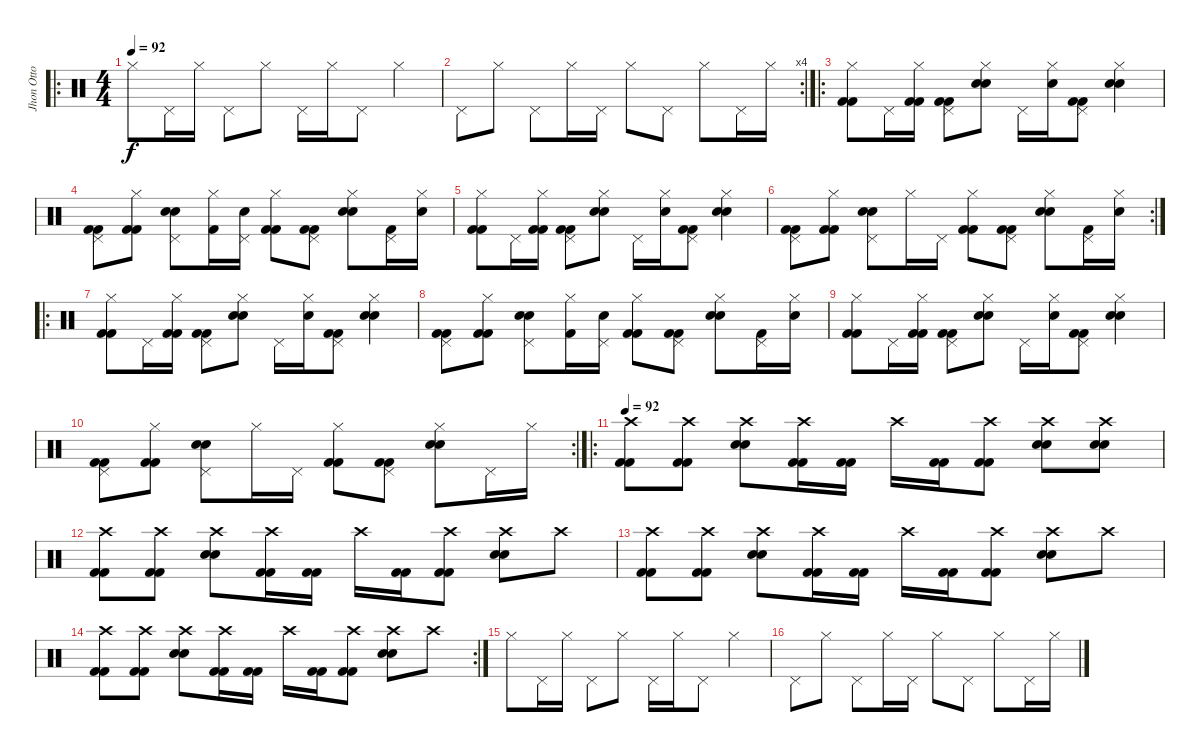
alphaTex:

\track ("Jhon Otto" "Jhon Otto") {instrument percussion}
\staff {score}
\articulation defaults
\ro
\ts (4 4)
\tempo 92
\clef neutral
\ks c "Hi-Hat (closed)".8{dy f} "Pedal Hi-Hat (hit)".16 "Hi-Hat (closed)".16 "Pedal Hi-Hat (hit)".8 "Hi-Hat (closed)".8 "Pedal Hi-Hat (hit)".16 "Hi-Hat (closed)".16 "Pedal Hi-Hat (hit)".8 "Hi-Hat (closed)".4
|
\rc 4 "Pedal Hi-Hat (hit)".8 "Hi-Hat (closed)".8 "Pedal Hi-Hat (hit)".8 "Hi-Hat (closed)".16 "Pedal Hi-Hat (hit)".16 "Hi-Hat (closed)".8 "Pedal Hi-Hat (hit)".8 "Hi-Hat (closed)".8 "Pedal Hi-Hat (hit)".16 "Hi-Hat (closed)".16
|
\ro
("Hi-Hat (closed)" "Kick (hit) 2" "Kick (hit) 2").8 "Pedal Hi-Hat (hit)".16 ("Hi-Hat (closed)" "Kick (hit) 2" "Kick (hit) 2").16 ("Pedal Hi-Hat (hit)" "Kick (hit) 2" "Kick (hit) 2").8 ("Hi-Hat (closed)" "Electric Snare (hit)" "Electric Snare (hit)").8 "Pedal Hi-Hat (hit)".16 ("Hi-Hat (closed)" "Electric Snare (hit)").16 ("Pedal Hi-Hat (hit)" "Kick (hit) 2" "Kick (hit) 2").8 ("Hi-Hat (closed)" "Electric Snare (hit)" "Electric Snare (hit)").4 |
("Pedal Hi-Hat (hit)" "Kick (hit) 2" "Kick (hit) 2").8 ("Hi-Hat (closed)" "Kick (hit) 2" "Kick (hit) 2").8 ("Pedal Hi-Hat (hit)" "Electric Snare (hit)" "Electric Snare (hit)").8 ("Hi-Hat (closed)" "Kick (hit) 2").16 ("Pedal Hi-Hat (hit)" "Electric Snare (hit)").16 ("Hi-Hat (closed)" "Kick (hit) 2" "Kick (hit) 2").8 ("Pedal Hi-Hat (hit)" "Kick (hit) 2" "Kick (hit) 2").8 ("Hi-Hat (closed)" "Electric Snare (hit)" "Electric Snare (hit)").8 ("Pedal Hi-Hat (hit)" "Kick (hit) 2").16 ("Hi-Hat (closed)" "Electric Snare (hit)").16 |
("Hi-Hat (closed)" "Kick (hit) 2" "Kick (hit) 2").8 "Pedal Hi-Hat (hit)".16 ("Hi-Hat (closed)" "Kick (hit) 2" "Kick (hit) 2").16 ("Pedal Hi-Hat (hit)" "Kick (hit) 2" "Kick (hit) 2").8 ("Hi-Hat (closed)" "Electric Snare (hit)" "Electric Snare (hit)").8 "Pedal Hi-Hat (hit)".16 ("Hi-Hat (closed)" "Electric Snare (hit)").16 ("Pedal Hi-Hat (hit)" "Kick (hit) 2" "Kick (hit) 2").8 ("Hi-Hat (closed)" "Electric Snare (hit)" "Electric Snare (hit)").4 |
\rc 2
("Pedal Hi-Hat (hit)" "Kick (hit) 2" "Kick (hit) 2").8 ("Hi-Hat (closed)" "Kick (hit) 2" "Kick (hit) 2").8 ("Pedal Hi-Hat (hit)" "Electric Snare (hit)" "Electric Snare (hit)").8 "Hi-Hat (closed)".16 "Pedal Hi-Hat (hit)".16 ("Hi-Hat (closed)" "Kick (hit) 2" "Kick (hit) 2").8 ("Pedal Hi-Hat (hit)" "Kick (hit) 2" "Kick (hit) 2").8 ("Hi-Hat (closed)" "Electric Snare (hit)" "Electric Snare (hit)").8 ("Pedal Hi-Hat (hit)" "Kick (hit) 2").16 ("Hi-Hat (closed)" "Electric Snare (hit)").16 |
\ro
("Hi-Hat (closed)" "Kick (hit) 2" "Kick (hit) 2").8 "Pedal Hi-Hat (hit)".16 ("Hi-Hat (closed)" "Kick (hit) 2" "Kick (hit) 2").16 ("Pedal Hi-Hat (hit)" "Kick (hit) 2" "Kick (hit) 2").8 ("Hi-Hat (closed)" "Electric Snare (hit)" "Electric Snare (hit)").8 "Pedal Hi-Hat (hit)".16 ("Hi-Hat (closed)" "Electric Snare (hit)").16 ("Pedal Hi-Hat (hit)" "Kick (hit) 2" "Kick (hit) 2").8 ("Hi-Hat (closed)" "Electric Snare (hit)" "Electric Snare (hit)").4 |
("Pedal Hi-Hat (hit)" "Kick (hit) 2" "Kick (hit) 2").8 ("Hi-Hat (closed)" "Kick (hit) 2" "Kick (hit) 2").8 ("Pedal Hi-Hat (hit)" "Electric Snare (hit)" "Electric Snare (hit)").8 ("Hi-Hat (closed)" "Kick (hit) 2").16 ("Pedal Hi-Hat (hit)" "Electric Snare (hit)").16 ("Hi-Hat (closed)" "Kick (hit) 2" "Kick (hit) 2").8 ("Pedal Hi-Hat (hit)" "Kick (hit) 2" "Kick (hit) 2").8 ("Hi-Hat (closed)" "Electric Snare (hit)" "Electric Snare (hit)").8 ("Pedal Hi-Hat (hit)" "Kick (hit) 2").16 ("Hi-Hat (closed)" "Electric Snare (hit)").16 |
("Hi-Hat (closed)" "Kick (hit) 2" "Kick (hit) 2").8 "Pedal Hi-Hat (hit)".16 ("Hi-Hat (closed)" "Kick (hit) 2" "Kick (hit) 2").16 ("Pedal Hi-Hat (hit)" "Kick (hit) 2" "Kick (hit) 2").8 ("Hi-Hat (closed)" "Electric Snare (hit)" "Electric Snare (hit)").8 "Pedal Hi-Hat (hit)".16 ("Hi-Hat (closed)" "Electric Snare (hit)").16 ("Pedal Hi-Hat (hit)" "Kick (hit) 2" "Kick (hit) 2").8 ("Hi-Hat (closed)" "Electric Snare (hit)" "Electric Snare (hit)").4 |
\rc 2
("Pedal Hi-Hat (hit)" "Kick (hit) 2" "Kick (hit) 2").8 ("Hi-Hat (closed)" "Kick (hit) 2" "Kick (hit) 2").8 ("Pedal Hi-Hat (hit)" "Electric Snare (hit)" "Electric Snare (hit)").8 "Hi-Hat (closed)".16 "Pedal Hi-Hat (hit)".16 ("Hi-Hat (closed)" "Kick (hit) 2" "Kick (hit) 2").8 ("Pedal Hi-Hat (hit)" "Kick (hit) 2" "Kick (hit) 2").8 ("Hi-Hat (closed)" "Electric Snare (hit)" "Electric Snare (hit)").8 "Pedal Hi-Hat (hit)".16 "Hi-Hat (closed)".16 |
\ro
\tempo 92
("Crash high (hit)" "Kick (hit) 2" "Kick (hit) 2").8 ("Crash high (hit)" "Kick (hit) 2" "Kick (hit) 2").8 ("Crash high (hit)" "Electric Snare (hit)" "Electric Snare (hit)").8 ("Crash high (hit)" "Kick (hit) 2" "Kick (hit) 2").16 ("Kick (hit) 2" "Kick (hit) 2").16 "Crash high (hit)".16 ("Kick (hit) 2" "Kick (hit) 2").16 ("Crash high (hit)" "Kick (hit) 2" "Kick (hit) 2").8 ("Crash high (hit)" "Electric Snare (hit)" "Electric Snare (hit)").8 ("Crash high (hit)" "Electric Snare (hit)" "Electric Snare (hit)").8 |
("Crash high (hit)" "Kick (hit) 2" "Kick (hit) 2").8 ("Crash high (hit)" "Kick (hit) 2" "Kick (hit) 2").8 ("Crash high (hit)" "Electric Snare (hit)" "Electric Snare (hit)").8 ("Crash high (hit)" "Kick (hit) 2" "Kick (hit) 2").16 ("Kick (hit) 2" "Kick (hit) 2").16 "Crash high (hit)".16 ("Kick (hit) 2" "Kick (hit) 2").16 ("Crash high (hit)" "Kick (hit) 2" "Kick (hit) 2").8 ("Crash high (hit)" "Electric Snare (hit)" "Electric Snare (hit)").8 "Crash high (hit)".8 |
("Crash high (hit)" "Kick (hit) 2" "Kick (hit) 2").8 ("Crash high (hit)" "Kick (hit) 2" "Kick (hit) 2").8 ("Crash high (hit)" "Electric Snare (hit)" "Electric Snare (hit)").8 ("Crash high (hit)" "Kick (hit) 2" "Kick (hit) 2").16 ("Kick (hit) 2" "Kick (hit) 2").16 "Crash high (hit)".16 ("Kick (hit) 2" "Kick (hit) 2").16 ("Crash high (hit)" "Kick (hit) 2" "Kick (hit) 2").8 ("Crash high (hit)" "Electric Snare (hit)" "Electric Snare (hit)").8 "Crash high (hit)".8 |
\rc 2
("Crash high (hit)" "Kick (hit) 2" "Kick (hit) 2").8 ("Crash high (hit)" "Kick (hit) 2" "Kick (hit) 2").8 ("Crash high (hit)" "Electric Snare (hit)" "Electric Snare (hit)").8 ("Crash high (hit)" "Kick (hit) 2" "Kick (hit) 2").16 ("Kick (hit) 2" "Kick (hit) 2").16 "Crash high (hit)".16 ("Kick (hit) 2" "Kick (hit) 2").16 ("Crash high (hit)" "Kick (hit) 2" "Kick (hit) 2").8 ("Crash high (hit)" "Electric Snare (hit)" "Electric Snare (hit)").8 "Crash high (hit)".8 |
"Hi-Hat (closed)".8 "Pedal Hi-Hat (hit)".16 "Hi-Hat (closed)".16 "Pedal Hi-Hat (hit)".8 "Hi-Hat (closed)".8 "Pedal Hi-Hat (hit)".16 "Hi-Hat (closed)".16 "Pedal Hi-Hat (hit)".8 "Hi-Hat (closed)".4 |
"Pedal Hi-Hat (hit)".8 "Hi-Hat (closed)".8 "Pedal Hi-Hat (hit)".8 "Hi-Hat (closed)".16 "Pedal Hi-Hat (hit)".16 "Hi-Hat (closed)".8 "Pedal Hi-Hat (hit)".8 "Hi-Hat (closed)".8 "Pedal Hi-Hat (hit)".16 "Hi-Hat (closed)".16
